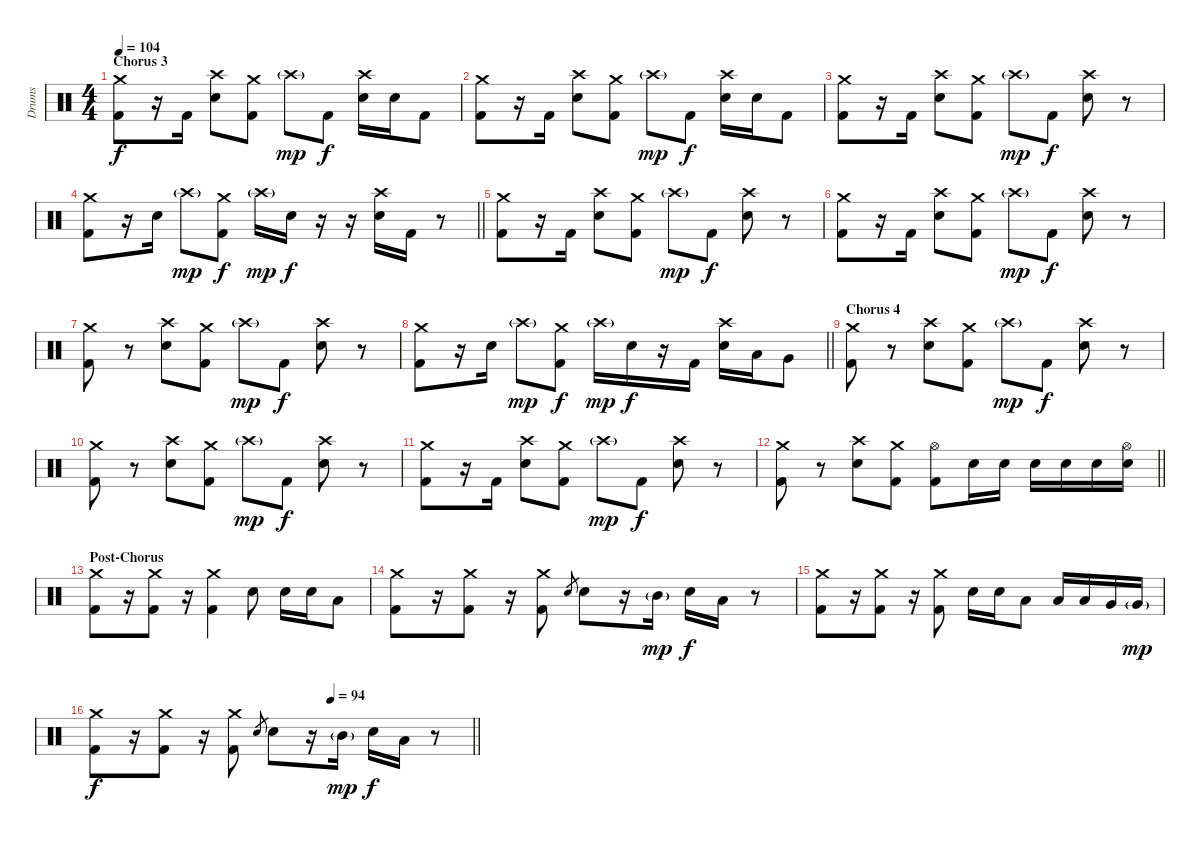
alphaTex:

\track ("Drums" "Drums") {instrument percussion}
\staff {score}
\articulation defaults
\ts (4 4)
\section ("" "Chorus 3")
\tempo 104
\clef neutral
\ks c
("Crash medium (hit)" "Kick (hit) 2").8{dy f} r.16 "Kick (hit) 2".16 ("Crash high (hit)" "Electric Snare (hit)").8 ("Crash medium (hit)" "Kick (hit) 2").8 "Crash high (hit)"{g}.8{dy mp} "Kick (hit) 2".8{dy f} ("Crash high (hit)" "Electric Snare (hit)").16 "Electric Snare (hit)".16 "Kick (hit) 2".8 |
("Crash medium (hit)" "Kick (hit) 2").8 r.16 "Kick (hit) 2".16 ("Crash high (hit)" "Electric Snare (hit)").8 ("Crash medium (hit)" "Kick (hit) 2").8 "Crash high (hit)"{g}.8{dy mp} "Kick (hit) 2".8{dy f} ("Crash high (hit)" "Electric Snare (hit)").16 "Electric Snare (hit)".16 "Kick (hit) 2".8 |
("Crash medium (hit)" "Kick (hit) 2").8 r.16 "Kick (hit) 2".16 ("Crash high (hit)" "Electric Snare (hit)").8 ("Crash medium (hit)" "Kick (hit) 2").8 "Crash high (hit)"{g}.8{dy mp} "Kick (hit) 2".8{dy f} ("Crash high (hit)" "Electric Snare (hit)").8 r.8 |
\barLineRight lightlight
("Crash medium (hit)" "Kick (hit) 2").8 r.16 "Electric Snare (hit)".16 "Crash high (hit)"{g}.8{dy mp} ("Crash medium (hit)" "Kick (hit) 2").8{dy f} "Crash high (hit)"{g}.16{dy mp} "Electric Snare (hit)".16{dy f} r.16 r.16 ("Crash high (hit)" "Electric Snare (hit)").16 "Kick (hit) 2".16 r.8 |
("Crash medium (hit)" "Kick (hit) 2").8 r.16 "Kick (hit) 2".16 ("Crash high (hit)" "Electric Snare (hit)").8 ("Crash medium (hit)" "Kick (hit) 2").8 "Crash high (hit)"{g}.8{dy mp} "Kick (hit) 2".8{dy f} ("Crash high (hit)" "Electric Snare (hit)").8 r.8 |
("Crash medium (hit)" "Kick (hit) 2").8 r.16 "Kick (hit) 2".16 ("Crash high (hit)" "Electric Snare (hit)").8 ("Crash medium (hit)" "Kick (hit) 2").8 "Crash high (hit)"{g}.8{dy mp} "Kick (hit) 2".8{dy f} ("Crash high (hit)" "Electric Snare (hit)").8 r.8 |
("Crash medium (hit)" "Kick (hit) 2").8 r.8 ("Crash high (hit)" "Electric Snare (hit)").8 ("Crash medium (hit)" "Kick (hit) 2").8 "Crash high (hit)"{g}.8{dy mp} "Kick (hit) 2".8{dy f} ("Crash high (hit)" "Electric Snare (hit)").8 r.8 |
\barLineRight lightlight
("Crash medium (hit)" "Kick (hit) 2").8 r.16 "Electric Snare (hit)".16 "Crash high (hit)"{g}.8{dy mp} ("Crash medium (hit)" "Kick (hit) 2").8{dy f} "Crash high (hit)"{g}.16{dy mp} "Electric Snare (hit)".16{dy f} r.16 "Kick (hit) 2".16 ("Crash high (hit)" "Electric Snare (hit)").16 "Low Tom (hit)".16 "Very Low Tom (hit)".8 |
\section ("" "Chorus 4")
("Crash medium (hit)" "Kick (hit) 2").8 r.8 ("Crash high (hit)" "Electric Snare (hit)").8 ("Crash medium (hit)" "Kick (hit) 2").8 "Crash high (hit)"{g}.8{dy mp} "Kick (hit) 2".8{dy f} ("Crash high (hit)" "Electric Snare (hit)").8 r.8 |
("Crash medium (hit)" "Kick (hit) 2").8 r.8 ("Crash high (hit)" "Electric Snare (hit)").8 ("Crash medium (hit)" "Kick (hit) 2").8 "Crash high (hit)"{g}.8{dy mp} "Kick (hit) 2".8{dy f} ("Crash high (hit)" "Electric Snare (hit)").8 r.8 |
("Crash medium (hit)" "Kick (hit) 2").8 r.16 "Kick (hit) 2".16 ("Crash high (hit)" "Electric Snare (hit)").8 ("Crash medium (hit)" "Kick (hit) 2").8 "Crash high (hit)"{g}.8{dy mp} "Kick (hit) 2".8{dy f} ("Crash high (hit)" "Electric Snare (hit)").8 r.8 |
\barLineRight lightlight
("Crash medium (hit)" "Kick (hit) 2").8 r.8 ("Crash high (hit)" "Electric Snare (hit)").8 ("Crash medium (hit)" "Kick (hit) 2").8 ("Hi-Hat (open)" "Kick (hit) 2").8 "Electric Snare (hit)".16 "Electric Snare (hit)".16 "Electric Snare (hit)".16 "Electric Snare (hit)".16 "Electric Snare (hit)".16 ("Hi-Hat (open)" "Electric Snare (hit)").16 |
\section ("" "Post-Chorus")
("Crash medium (hit)" "Kick (hit) 2").8 r.16 ("Crash medium (hit)" "Kick (hit) 2").8 r.16 ("Crash medium (hit)" "Kick (hit) 2").4 "Electric Snare (hit)".8 "Electric Snare (hit)".16 "Electric Snare (hit)".16 "Low Tom (hit)".8 |
("Crash medium (hit)" "Kick (hit) 2").8 r.16 ("Crash medium (hit)" "Kick (hit) 2").8 r.16 ("Crash medium (hit)" "Kick (hit) 2").8 "Electric Snare (hit)".8{gr} "Electric Snare (hit)".8 r.16 "Mid Tom (hit)"{g}.16{dy mp} "Electric Snare (hit)".16{dy f} "Low Tom (hit)".16 r.8 |
("Crash medium (hit)" "Kick (hit) 2").8 r.16 ("Crash medium (hit)" "Kick (hit) 2").8 r.16 ("Crash medium (hit)" "Kick (hit) 2").8 "Electric Snare (hit)".16 "Electric Snare (hit)".16 "Low Tom (hit)".8 "Low Tom (hit)".16 "Low Tom (hit)".16 "Very Low Tom (hit)".16 "Very Low Tom (hit)"{g}.16{dy mp} |
\tempo (94 0.625)
\barLineRight lightlight
("Crash medium (hit)" "Kick (hit) 2").8{dy f} r.16 ("Crash medium (hit)" "Kick (hit) 2").8 r.16 ("Crash medium (hit)" "Kick (hit) 2").8 "Electric Snare (hit)".8{gr} "Electric Snare (hit)".8 r.16 "Mid Tom (hit)"{g}.16{dy mp} "Electric Snare (hit)".16{dy f} "Low Tom (hit)".16 r.8
